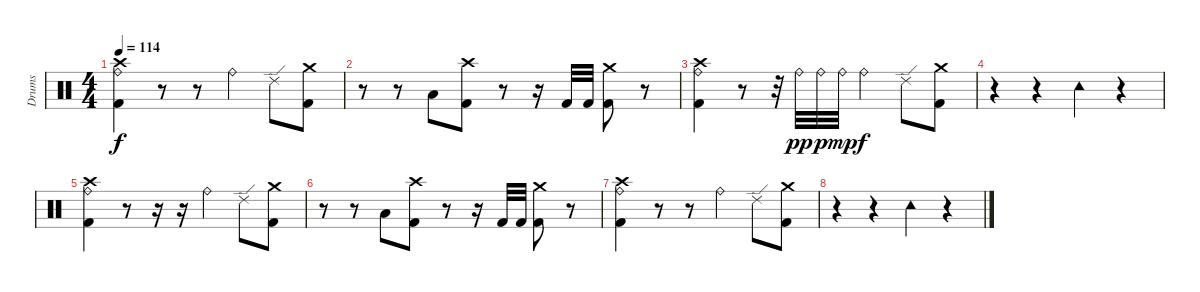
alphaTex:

\track ("Drums" "Drums") {instrument percussion}
\staff {score}
\articulation defaults
\ts (4 4)
\tempo 114
\clef neutral
\ks c
("Kick (hit) 2" "Ride (bell)" "Crash high (hit)").4{dy f} r.8 r.8 "Ride (bell)".4 "Ride (edge) 2".8 ("Kick (hit) 2" "Crash medium (hit)").8 |
r.8 r.8 "Low Floor Tom (hit)".8 ("Kick (hit) 2" "Crash high (hit)").8 r.8 r.16 "Kick (hit) 2".32 "Kick (hit) 2".32 ("Kick (hit) 2" "Crash medium (hit)").8 r.8 |
("Kick (hit) 2" "Ride (bell)" "Crash high (hit)").4 r.8 r.32 "Ride (bell)".32{dy pp} "Ride (bell)".32{dy p} "Ride (bell)".32{dy mp} "Ride (bell)".4{dy f} "Ride (edge) 2".8 ("Kick (hit) 2" "Crash medium (hit)").8 |
r.4 r.4 "Tambourine (hit)".4 r.4 |
("Kick (hit) 2" "Ride (bell)" "Crash high (hit)").4 r.8 r.16 r.16 "Ride (bell)".4 "Ride (edge) 2".8 ("Kick (hit) 2" "Crash medium (hit)").8 |
r.8 r.8 "Low Floor Tom (hit)".8 ("Kick (hit) 2" "Crash high (hit)").8 r.8 r.16 "Kick (hit) 2".32 "Kick (hit) 2".32 ("Kick (hit) 2" "Crash medium (hit)").8 r.8 |
("Kick (hit) 2" "Ride (bell)" "Crash high (hit)").4 r.8 r.8 "Ride (bell)".4 "Ride (edge) 2".8 ("Kick (hit) 2" "Crash medium (hit)").8 |
r.4 r.4 "Tambourine (hit)".4 r.4
